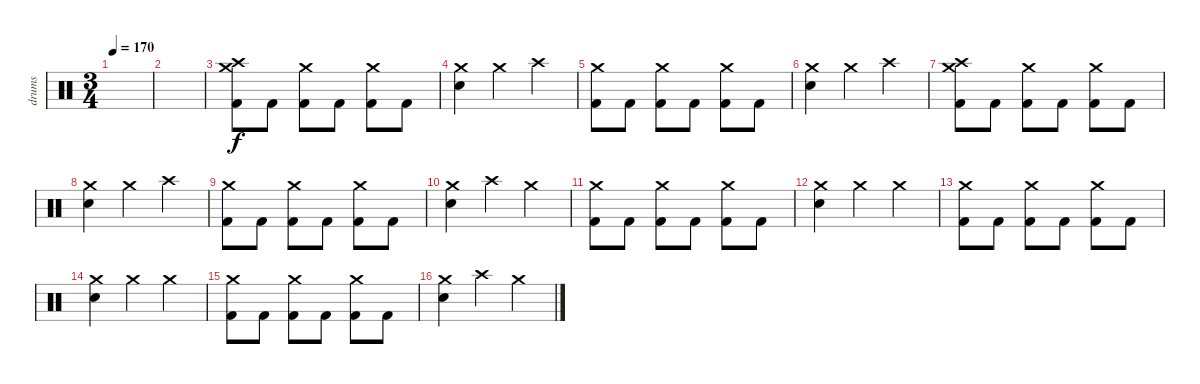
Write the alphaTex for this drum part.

\track ("drums" "drums") {instrument percussion}
\staff {score}
\articulation defaults
\ts (3 4)
\tempo 170
\clef neutral
\ks c
|
|
("Kick (hit) 2" "Crash medium (hit)" "Crash high (hit)").8 "Kick (hit) 2".8 ("Kick (hit) 2" "Crash medium (hit)").8 "Kick (hit) 2".8 ("Kick (hit) 2" "Crash medium (hit)").8 "Kick (hit) 2".8 |
("Snare (hit) 2" "Crash medium (hit)").4 "Crash medium (hit)".4 "Crash high (hit)".4 |
("Kick (hit) 2" "Crash medium (hit)").8 "Kick (hit) 2".8 ("Kick (hit) 2" "Crash medium (hit)").8 "Kick (hit) 2".8 ("Kick (hit) 2" "Crash medium (hit)").8 "Kick (hit) 2".8 |
("Snare (hit) 2" "Crash medium (hit)").4 "Crash medium (hit)".4 "Crash high (hit)".4 |
("Kick (hit) 2" "Crash medium (hit)" "Crash high (hit)").8 "Kick (hit) 2".8 ("Kick (hit) 2" "Crash medium (hit)").8 "Kick (hit) 2".8 ("Kick (hit) 2" "Crash medium (hit)").8 "Kick (hit) 2".8 |
("Snare (hit) 2" "Crash medium (hit)").4 "Crash medium (hit)".4 "Crash high (hit)".4 |
("Kick (hit) 2" "Crash medium (hit)").8 "Kick (hit) 2".8 ("Kick (hit) 2" "Crash medium (hit)").8 "Kick (hit) 2".8 ("Kick (hit) 2" "Crash medium (hit)").8 "Kick (hit) 2".8 |
("Snare (hit) 2" "Crash medium (hit)").4 "Crash high (hit)".4 "Crash medium (hit)".4 |
("Kick (hit) 2" "Crash medium (hit)").8 "Kick (hit) 2".8 ("Kick (hit) 2" "Crash medium (hit)").8 "Kick (hit) 2".8 ("Kick (hit) 2" "Crash medium (hit)").8 "Kick (hit) 2".8 |
("Snare (hit) 2" "Crash medium (hit)").4 "Crash medium (hit)".4 "Crash medium (hit)".4 |
("Kick (hit) 2" "Crash medium (hit)").8 "Kick (hit) 2".8 ("Kick (hit) 2" "Crash medium (hit)").8 "Kick (hit) 2".8 ("Kick (hit) 2" "Crash medium (hit)").8 "Kick (hit) 2".8 |
("Snare (hit) 2" "Crash medium (hit)").4 "Crash medium (hit)".4 "Crash medium (hit)".4 |
("Kick (hit) 2" "Crash medium (hit)").8 "Kick (hit) 2".8 ("Kick (hit) 2" "Crash medium (hit)").8 "Kick (hit) 2".8 ("Kick (hit) 2" "Crash medium (hit)").8 "Kick (hit) 2".8 |
("Snare (hit) 2" "Crash medium (hit)").4 "Crash high (hit)".4 "Crash medium (hit)".4
